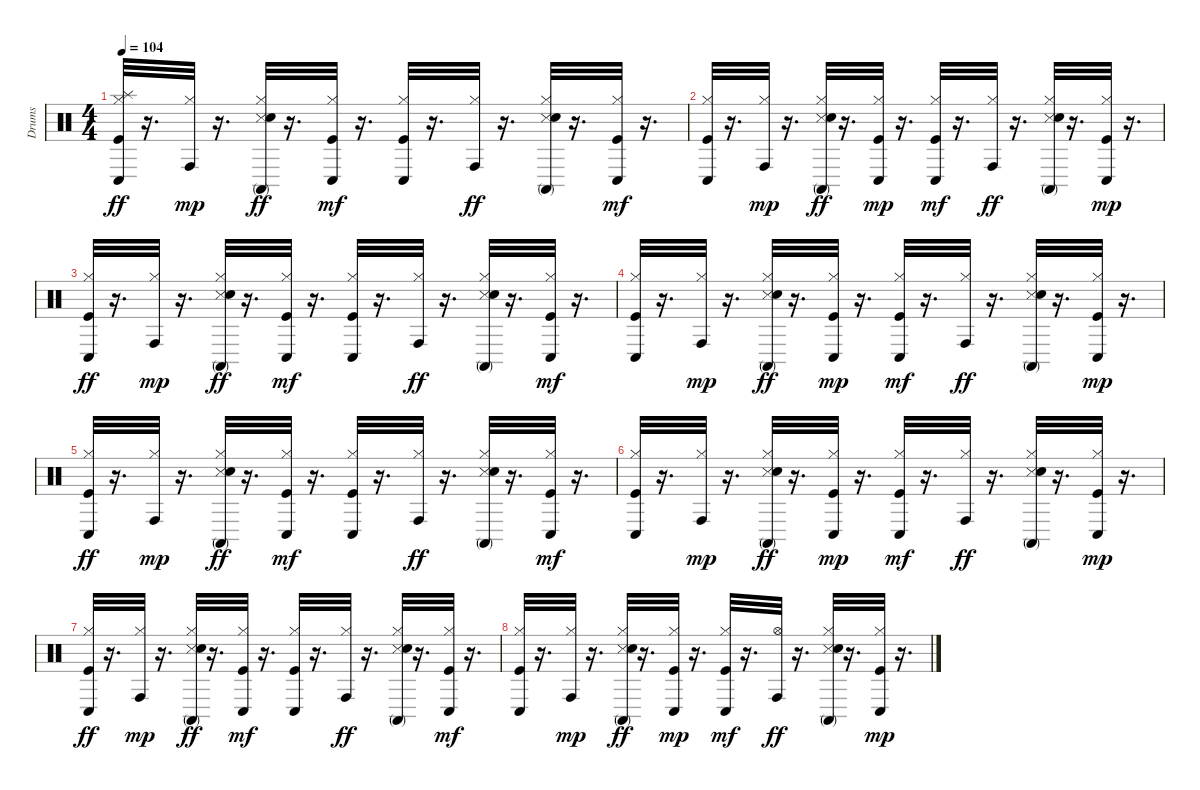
\track ("Drums" "Drums") {instrument percussion}
\staff {score}
\articulation defaults
\ts (4 4)
\tempo 104
\clef neutral
\ks c
("Splash (hit)" "Kick (hit)" "Hi-Hat (closed)" "Conga low (hit)").32{dy ff} r.16{d} ("Hi-Hat (closed)" "Conga high (hit)").32{dy mp} r.16{d} ("Snare (side stick) 3" "Hi-Hat (closed)" "Conga high (mute)" "Snare (hit) 2").32{dy ff} r.16{d} ("Kick (hit)" "Hi-Hat (closed)" "Conga low (hit)").32{dy mf} r.16{d} ("Kick (hit)" "Hi-Hat (closed)" "Conga low (hit)").32 r.16{d} ("Hi-Hat (closed)" "Conga high (hit)").32{dy ff} r.16{d} ("Snare (side stick) 3" "Hi-Hat (closed)" "Conga high (mute)" "Snare (hit) 2").32 r.16{d} ("Kick (hit)" "Hi-Hat (closed)" "Conga low (hit)").32{dy mf} r.16{d} |
("Kick (hit)" "Hi-Hat (closed)" "Conga low (hit)").32 r.16{d} ("Hi-Hat (closed)" "Conga high (hit)").32{dy mp} r.16{d} ("Snare (side stick) 3" "Hi-Hat (closed)" "Conga high (mute)" "Snare (hit) 2").32{dy ff} r.16{d} ("Kick (hit)" "Hi-Hat (closed)" "Conga low (hit)").32{dy mp} r.16{d} ("Kick (hit)" "Hi-Hat (closed)" "Conga low (hit)").32{dy mf} r.16{d} ("Hi-Hat (closed)" "Conga high (hit)").32{dy ff} r.16{d} ("Snare (side stick) 3" "Hi-Hat (closed)" "Conga high (mute)" "Snare (hit) 2").32 r.16{d} ("Kick (hit)" "Hi-Hat (closed)" "Conga low (hit)").32{dy mp} r.16{d} |
("Kick (hit)" "Hi-Hat (closed)" "Conga low (hit)").32{dy ff} r.16{d} ("Hi-Hat (closed)" "Conga high (hit)").32{dy mp} r.16{d} ("Snare (side stick) 3" "Hi-Hat (closed)" "Conga high (mute)" "Snare (hit) 2").32{dy ff} r.16{d} ("Kick (hit)" "Hi-Hat (closed)" "Conga low (hit)").32{dy mf} r.16{d} ("Kick (hit)" "Hi-Hat (closed)" "Conga low (hit)").32 r.16{d} ("Hi-Hat (closed)" "Conga high (hit)").32{dy ff} r.16{d} ("Snare (side stick) 3" "Hi-Hat (closed)" "Conga high (mute)" "Snare (hit) 2").32 r.16{d} ("Kick (hit)" "Hi-Hat (closed)" "Conga low (hit)").32{dy mf} r.16{d} |
("Kick (hit)" "Hi-Hat (closed)" "Conga low (hit)").32 r.16{d} ("Hi-Hat (closed)" "Conga high (hit)").32{dy mp} r.16{d} ("Snare (side stick) 3" "Hi-Hat (closed)" "Conga high (mute)" "Snare (hit) 2").32{dy ff} r.16{d} ("Kick (hit)" "Hi-Hat (closed)" "Conga low (hit)").32{dy mp} r.16{d} ("Kick (hit)" "Hi-Hat (closed)" "Conga low (hit)").32{dy mf} r.16{d} ("Hi-Hat (closed)" "Conga high (hit)").32{dy ff} r.16{d} ("Snare (side stick) 3" "Hi-Hat (closed)" "Conga high (mute)" "Snare (hit) 2").32 r.16{d} ("Kick (hit)" "Hi-Hat (closed)" "Conga low (hit)").32{dy mp} r.16{d} |
("Kick (hit)" "Hi-Hat (closed)" "Conga low (hit)").32{dy ff} r.16{d} ("Hi-Hat (closed)" "Conga high (hit)").32{dy mp} r.16{d} ("Snare (side stick) 3" "Hi-Hat (closed)" "Conga high (mute)" "Snare (hit) 2").32{dy ff} r.16{d} ("Kick (hit)" "Hi-Hat (closed)" "Conga low (hit)").32{dy mf} r.16{d} ("Kick (hit)" "Hi-Hat (closed)" "Conga low (hit)").32 r.16{d} ("Hi-Hat (closed)" "Conga high (hit)").32{dy ff} r.16{d} ("Snare (side stick) 3" "Hi-Hat (closed)" "Conga high (mute)" "Snare (hit) 2").32 r.16{d} ("Kick (hit)" "Hi-Hat (closed)" "Conga low (hit)").32{dy mf} r.16{d} |
("Kick (hit)" "Hi-Hat (closed)" "Conga low (hit)").32 r.16{d} ("Hi-Hat (closed)" "Conga high (hit)").32{dy mp} r.16{d} ("Snare (side stick) 3" "Hi-Hat (closed)" "Conga high (mute)" "Snare (hit) 2").32{dy ff} r.16{d} ("Kick (hit)" "Hi-Hat (closed)" "Conga low (hit)").32{dy mp} r.16{d} ("Kick (hit)" "Hi-Hat (closed)" "Conga low (hit)").32{dy mf} r.16{d} ("Hi-Hat (closed)" "Conga high (hit)").32{dy ff} r.16{d} ("Snare (side stick) 3" "Hi-Hat (closed)" "Conga high (mute)" "Snare (hit) 2").32 r.16{d} ("Kick (hit)" "Hi-Hat (closed)" "Conga low (hit)").32{dy mp} r.16{d} |
("Kick (hit)" "Hi-Hat (closed)" "Conga low (hit)").32{dy ff} r.16{d} ("Hi-Hat (closed)" "Conga high (hit)").32{dy mp} r.16{d} ("Snare (side stick) 3" "Hi-Hat (closed)" "Conga high (mute)" "Snare (hit) 2").32{dy ff} r.16{d} ("Kick (hit)" "Hi-Hat (closed)" "Conga low (hit)").32{dy mf} r.16{d} ("Kick (hit)" "Hi-Hat (closed)" "Conga low (hit)").32 r.16{d} ("Hi-Hat (closed)" "Conga high (hit)").32{dy ff} r.16{d} ("Snare (side stick) 3" "Hi-Hat (closed)" "Conga high (mute)" "Snare (hit) 2").32 r.16{d} ("Kick (hit)" "Hi-Hat (closed)" "Conga low (hit)").32{dy mf} r.16{d} |
("Kick (hit)" "Hi-Hat (closed)" "Conga low (hit)").32 r.16{d} ("Hi-Hat (closed)" "Conga high (hit)").32{dy mp} r.16{d} ("Snare (side stick) 3" "Hi-Hat (closed)" "Conga high (mute)" "Snare (hit) 2").32{dy ff} r.16{d} ("Kick (hit)" "Hi-Hat (closed)" "Conga low (hit)").32{dy mp} r.16{d} ("Kick (hit)" "Hi-Hat (closed)" "Conga low (hit)").32{dy mf} r.16{d} ("Hi-Hat (open)" "Conga high (hit)").32{dy ff} r.16{d} ("Snare (side stick) 3" "Hi-Hat (closed)" "Conga high (mute)" "Snare (hit) 2").32 r.16{d} ("Kick (hit)" "Hi-Hat (closed)" "Conga low (hit)").32{dy mp} r.16{d}
